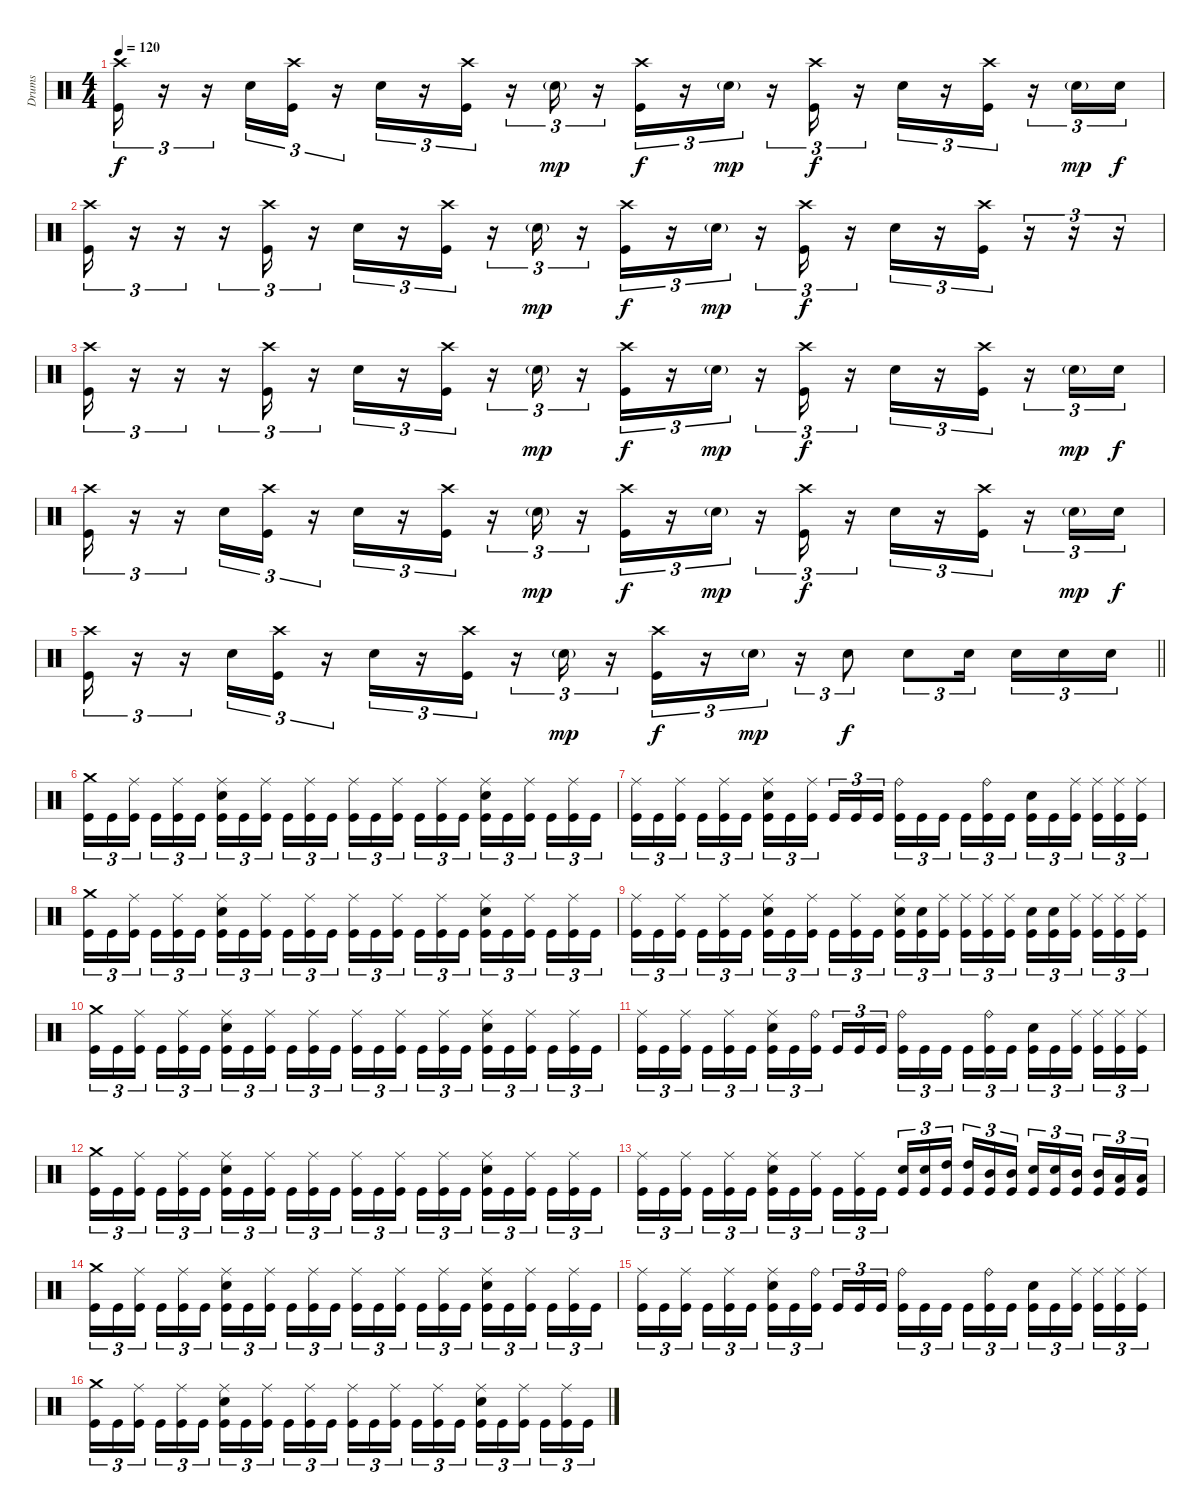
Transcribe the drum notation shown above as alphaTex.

\track ("Drums" "Drums") {instrument percussion}
\staff {score}
\articulation defaults
\ts (4 4)
\tempo 120
\clef neutral
\ks c
("Crash high (hit)" "Kick (hit)").16{tu (3 2) dy f} r.16{tu (3 2)} r.16{tu (3 2)} "Snare (hit) 2".16{tu (3 2)} ("Crash high (hit)" "Kick (hit)").16{tu (3 2)} r.16{tu (3 2)} "Snare (hit) 2".16{tu (3 2)} r.16{tu (3 2)} ("Crash high (hit)" "Kick (hit)").16{tu (3 2)} r.16{tu (3 2)} "Snare (hit) 2"{g}.16{tu (3 2) dy mp} r.16{tu (3 2)} ("Crash high (hit)" "Kick (hit)").16{tu (3 2) dy f} r.16{tu (3 2)} "Snare (hit) 2"{g}.16{tu (3 2) dy mp} r.16{tu (3 2)} ("Crash high (hit)" "Kick (hit)").16{tu (3 2) dy f} r.16{tu (3 2)} "Snare (hit) 2".16{tu (3 2)} r.16{tu (3 2)} ("Crash high (hit)" "Kick (hit)").16{tu (3 2)} r.16{tu (3 2)} "Snare (hit) 2"{g}.16{tu (3 2) dy mp} "Snare (hit) 2".16{tu (3 2) dy f} |
("Crash high (hit)" "Kick (hit)").16{tu (3 2)} r.16{tu (3 2)} r.16{tu (3 2)} r.16{tu (3 2)} ("Crash high (hit)" "Kick (hit)").16{tu (3 2)} r.16{tu (3 2)} "Snare (hit) 2".16{tu (3 2)} r.16{tu (3 2)} ("Crash high (hit)" "Kick (hit)").16{tu (3 2)} r.16{tu (3 2)} "Snare (hit) 2"{g}.16{tu (3 2) dy mp} r.16{tu (3 2)} ("Crash high (hit)" "Kick (hit)").16{tu (3 2) dy f} r.16{tu (3 2)} "Snare (hit) 2"{g}.16{tu (3 2) dy mp} r.16{tu (3 2)} ("Crash high (hit)" "Kick (hit)").16{tu (3 2) dy f} r.16{tu (3 2)} "Snare (hit) 2".16{tu (3 2)} r.16{tu (3 2)} ("Crash high (hit)" "Kick (hit)").16{tu (3 2)} r.16{tu (3 2)} r.16{tu (3 2)} r.16{tu (3 2)} |
("Crash high (hit)" "Kick (hit)").16{tu (3 2)} r.16{tu (3 2)} r.16{tu (3 2)} r.16{tu (3 2)} ("Crash high (hit)" "Kick (hit)").16{tu (3 2)} r.16{tu (3 2)} "Snare (hit) 2".16{tu (3 2)} r.16{tu (3 2)} ("Crash high (hit)" "Kick (hit)").16{tu (3 2)} r.16{tu (3 2)} "Snare (hit) 2"{g}.16{tu (3 2) dy mp} r.16{tu (3 2)} ("Crash high (hit)" "Kick (hit)").16{tu (3 2) dy f} r.16{tu (3 2)} "Snare (hit) 2"{g}.16{tu (3 2) dy mp} r.16{tu (3 2)} ("Crash high (hit)" "Kick (hit)").16{tu (3 2) dy f} r.16{tu (3 2)} "Snare (hit) 2".16{tu (3 2)} r.16{tu (3 2)} ("Crash high (hit)" "Kick (hit)").16{tu (3 2)} r.16{tu (3 2)} "Snare (hit) 2"{g}.16{tu (3 2) dy mp} "Snare (hit) 2".16{tu (3 2) dy f} |
("Crash high (hit)" "Kick (hit)").16{tu (3 2)} r.16{tu (3 2)} r.16{tu (3 2)} "Snare (hit) 2".16{tu (3 2)} ("Crash high (hit)" "Kick (hit)").16{tu (3 2)} r.16{tu (3 2)} "Snare (hit) 2".16{tu (3 2)} r.16{tu (3 2)} ("Crash high (hit)" "Kick (hit)").16{tu (3 2)} r.16{tu (3 2)} "Snare (hit) 2"{g}.16{tu (3 2) dy mp} r.16{tu (3 2)} ("Crash high (hit)" "Kick (hit)").16{tu (3 2) dy f} r.16{tu (3 2)} "Snare (hit) 2"{g}.16{tu (3 2) dy mp} r.16{tu (3 2)} ("Crash high (hit)" "Kick (hit)").16{tu (3 2) dy f} r.16{tu (3 2)} "Snare (hit) 2".16{tu (3 2)} r.16{tu (3 2)} ("Crash high (hit)" "Kick (hit)").16{tu (3 2)} r.16{tu (3 2)} "Snare (hit) 2"{g}.16{tu (3 2) dy mp} "Snare (hit) 2".16{tu (3 2) dy f} |
\barLineRight lightlight
("Crash high (hit)" "Kick (hit)").16{tu (3 2)} r.16{tu (3 2)} r.16{tu (3 2)} "Snare (hit) 2".16{tu (3 2)} ("Crash high (hit)" "Kick (hit)").16{tu (3 2)} r.16{tu (3 2)} "Snare (hit) 2".16{tu (3 2)} r.16{tu (3 2)} ("Crash high (hit)" "Kick (hit)").16{tu (3 2)} r.16{tu (3 2)} "Snare (hit) 2"{g}.16{tu (3 2) dy mp} r.16{tu (3 2)} ("Crash high (hit)" "Kick (hit)").16{tu (3 2) dy f} r.16{tu (3 2)} "Snare (hit) 2"{g}.16{tu (3 2) dy mp} r.16{tu (3 2)} "Snare (hit) 2".8{tu (3 2) dy f} "Snare (hit) 2".8{tu (3 2)} "Snare (hit) 2".16{tu (3 2) beam splitsecondary} "Snare (hit) 2".16{tu (3 2)} "Snare (hit) 2".16{tu (3 2)} "Snare (hit) 2".16{tu (3 2)} |
\section ("" "")
("Crash medium (hit)" "Kick (hit)").16{tu (3 2)} "Kick (hit)".16{tu (3 2)} ("Ride (middle)" "Kick (hit)").16{tu (3 2) beam splitsecondary} "Kick (hit)".16{tu (3 2)} ("Ride (middle)" "Kick (hit)").16{tu (3 2)} "Kick (hit)".16{tu (3 2)} ("Ride (middle)" "Snare (hit) 2" "Kick (hit)").16{tu (3 2)} "Kick (hit)".16{tu (3 2)} ("Ride (middle)" "Kick (hit)").16{tu (3 2) beam splitsecondary} "Kick (hit)".16{tu (3 2)} ("Ride (middle)" "Kick (hit)").16{tu (3 2)} "Kick (hit)".16{tu (3 2)} ("Ride (middle)" "Kick (hit)").16{tu (3 2)} "Kick (hit)".16{tu (3 2)} ("Ride (middle)" "Kick (hit)").16{tu (3 2) beam splitsecondary} "Kick (hit)".16{tu (3 2)} ("Ride (middle)" "Kick (hit)").16{tu (3 2)} "Kick (hit)".16{tu (3 2)} ("Ride (middle)" "Snare (hit) 2" "Kick (hit)").16{tu (3 2)} "Kick (hit)".16{tu (3 2)} ("Ride (middle)" "Kick (hit)").16{tu (3 2) beam splitsecondary} "Kick (hit)".16{tu (3 2)} ("Ride (middle)" "Kick (hit)").16{tu (3 2)} "Kick (hit)".16{tu (3 2)} |
("Ride (middle)" "Kick (hit)").16{tu (3 2)} "Kick (hit)".16{tu (3 2)} ("Ride (middle)" "Kick (hit)").16{tu (3 2) beam splitsecondary} "Kick (hit)".16{tu (3 2)} ("Ride (middle)" "Kick (hit)").16{tu (3 2)} "Kick (hit)".16{tu (3 2)} ("Ride (middle)" "Snare (hit) 2" "Kick (hit)").16{tu (3 2)} "Kick (hit)".16{tu (3 2)} ("Ride (middle)" "Kick (hit)").16{tu (3 2) beam splitsecondary} "Kick (hit)".16{tu (3 2)} "Kick (hit)".16{tu (3 2)} "Kick (hit)".16{tu (3 2)} ("Ride (bell)" "Kick (hit)").16{tu (3 2)} "Kick (hit)".16{tu (3 2)} "Kick (hit)".16{tu (3 2) beam splitsecondary} "Kick (hit)".16{tu (3 2)} ("Ride (bell)" "Kick (hit)").16{tu (3 2)} "Kick (hit)".16{tu (3 2)} ("Snare (hit) 2" "Kick (hit)").16{tu (3 2)} "Kick (hit)".16{tu (3 2)} ("Ride (middle)" "Kick (hit)").16{tu (3 2) beam splitsecondary} ("Ride (middle)" "Kick (hit)").16{tu (3 2)} ("Ride (middle)" "Kick (hit)").16{tu (3 2)} ("Ride (middle)" "Kick (hit)").16{tu (3 2)} |
("Crash medium (hit)" "Kick (hit)").16{tu (3 2)} "Kick (hit)".16{tu (3 2)} ("Ride (middle)" "Kick (hit)").16{tu (3 2) beam splitsecondary} "Kick (hit)".16{tu (3 2)} ("Ride (middle)" "Kick (hit)").16{tu (3 2)} "Kick (hit)".16{tu (3 2)} ("Ride (middle)" "Snare (hit) 2" "Kick (hit)").16{tu (3 2)} "Kick (hit)".16{tu (3 2)} ("Ride (middle)" "Kick (hit)").16{tu (3 2) beam splitsecondary} "Kick (hit)".16{tu (3 2)} ("Ride (middle)" "Kick (hit)").16{tu (3 2)} "Kick (hit)".16{tu (3 2)} ("Ride (middle)" "Kick (hit)").16{tu (3 2)} "Kick (hit)".16{tu (3 2)} ("Ride (middle)" "Kick (hit)").16{tu (3 2) beam splitsecondary} "Kick (hit)".16{tu (3 2)} ("Ride (middle)" "Kick (hit)").16{tu (3 2)} "Kick (hit)".16{tu (3 2)} ("Ride (middle)" "Snare (hit) 2" "Kick (hit)").16{tu (3 2)} "Kick (hit)".16{tu (3 2)} ("Ride (middle)" "Kick (hit)").16{tu (3 2) beam splitsecondary} "Kick (hit)".16{tu (3 2)} ("Ride (middle)" "Kick (hit)").16{tu (3 2)} "Kick (hit)".16{tu (3 2)} |
("Ride (middle)" "Kick (hit)").16{tu (3 2)} "Kick (hit)".16{tu (3 2)} ("Ride (middle)" "Kick (hit)").16{tu (3 2) beam splitsecondary} "Kick (hit)".16{tu (3 2)} ("Ride (middle)" "Kick (hit)").16{tu (3 2)} "Kick (hit)".16{tu (3 2)} ("Ride (middle)" "Snare (hit) 2" "Kick (hit)").16{tu (3 2)} "Kick (hit)".16{tu (3 2)} ("Ride (middle)" "Kick (hit)").16{tu (3 2) beam splitsecondary} "Kick (hit)".16{tu (3 2)} ("Ride (middle)" "Kick (hit)").16{tu (3 2)} "Kick (hit)".16{tu (3 2)} ("Ride (middle)" "Snare (hit) 2" "Kick (hit)").16{tu (3 2)} ("Snare (hit) 2" "Kick (hit)").16{tu (3 2)} ("Ride (middle)" "Kick (hit)").16{tu (3 2) beam splitsecondary} ("Ride (middle)" "Kick (hit)").16{tu (3 2)} ("Ride (middle)" "Kick (hit)").16{tu (3 2)} ("Ride (middle)" "Kick (hit)").16{tu (3 2)} ("Snare (hit) 2" "Kick (hit)").16{tu (3 2)} ("Snare (hit) 2" "Kick (hit)").16{tu (3 2)} ("Ride (middle)" "Kick (hit)").16{tu (3 2) beam splitsecondary} ("Ride (middle)" "Kick (hit)").16{tu (3 2)} ("Ride (middle)" "Kick (hit)").16{tu (3 2)} ("Ride (middle)" "Kick (hit)").16{tu (3 2)} |
("Crash medium (hit)" "Kick (hit)").16{tu (3 2)} "Kick (hit)".16{tu (3 2)} ("Ride (middle)" "Kick (hit)").16{tu (3 2) beam splitsecondary} "Kick (hit)".16{tu (3 2)} ("Ride (middle)" "Kick (hit)").16{tu (3 2)} "Kick (hit)".16{tu (3 2)} ("Ride (middle)" "Snare (hit) 2" "Kick (hit)").16{tu (3 2)} "Kick (hit)".16{tu (3 2)} ("Ride (middle)" "Kick (hit)").16{tu (3 2) beam splitsecondary} "Kick (hit)".16{tu (3 2)} ("Ride (middle)" "Kick (hit)").16{tu (3 2)} "Kick (hit)".16{tu (3 2)} ("Ride (middle)" "Kick (hit)").16{tu (3 2)} "Kick (hit)".16{tu (3 2)} ("Ride (middle)" "Kick (hit)").16{tu (3 2) beam splitsecondary} "Kick (hit)".16{tu (3 2)} ("Ride (middle)" "Kick (hit)").16{tu (3 2)} "Kick (hit)".16{tu (3 2)} ("Ride (middle)" "Snare (hit) 2" "Kick (hit)").16{tu (3 2)} "Kick (hit)".16{tu (3 2)} ("Ride (middle)" "Kick (hit)").16{tu (3 2) beam splitsecondary} "Kick (hit)".16{tu (3 2)} ("Ride (middle)" "Kick (hit)").16{tu (3 2)} "Kick (hit)".16{tu (3 2)} |
("Ride (middle)" "Kick (hit)").16{tu (3 2)} "Kick (hit)".16{tu (3 2)} ("Ride (middle)" "Kick (hit)").16{tu (3 2) beam splitsecondary} "Kick (hit)".16{tu (3 2)} ("Ride (middle)" "Kick (hit)").16{tu (3 2)} "Kick (hit)".16{tu (3 2)} ("Ride (middle)" "Snare (hit) 2" "Kick (hit)").16{tu (3 2)} "Kick (hit)".16{tu (3 2)} ("Ride (bell)" "Kick (hit)").16{tu (3 2) beam splitsecondary} "Kick (hit)".16{tu (3 2)} "Kick (hit)".16{tu (3 2)} "Kick (hit)".16{tu (3 2)} ("Ride (bell)" "Kick (hit)").16{tu (3 2)} "Kick (hit)".16{tu (3 2)} "Kick (hit)".16{tu (3 2) beam splitsecondary} "Kick (hit)".16{tu (3 2)} ("Ride (bell)" "Kick (hit)").16{tu (3 2)} "Kick (hit)".16{tu (3 2)} ("Snare (hit) 2" "Kick (hit)").16{tu (3 2)} "Kick (hit)".16{tu (3 2)} ("Ride (middle)" "Kick (hit)").16{tu (3 2) beam splitsecondary} ("Ride (middle)" "Kick (hit)").16{tu (3 2)} ("Ride (middle)" "Kick (hit)").16{tu (3 2)} ("Ride (middle)" "Kick (hit)").16{tu (3 2)} |
("Crash medium (hit)" "Kick (hit)").16{tu (3 2)} "Kick (hit)".16{tu (3 2)} ("Ride (middle)" "Kick (hit)").16{tu (3 2) beam splitsecondary} "Kick (hit)".16{tu (3 2)} ("Ride (middle)" "Kick (hit)").16{tu (3 2)} "Kick (hit)".16{tu (3 2)} ("Ride (middle)" "Snare (hit) 2" "Kick (hit)").16{tu (3 2)} "Kick (hit)".16{tu (3 2)} ("Ride (middle)" "Kick (hit)").16{tu (3 2) beam splitsecondary} "Kick (hit)".16{tu (3 2)} ("Ride (middle)" "Kick (hit)").16{tu (3 2)} "Kick (hit)".16{tu (3 2)} ("Ride (middle)" "Kick (hit)").16{tu (3 2)} "Kick (hit)".16{tu (3 2)} ("Ride (middle)" "Kick (hit)").16{tu (3 2) beam splitsecondary} "Kick (hit)".16{tu (3 2)} ("Ride (middle)" "Kick (hit)").16{tu (3 2)} "Kick (hit)".16{tu (3 2)} ("Ride (middle)" "Snare (hit) 2" "Kick (hit)").16{tu (3 2)} "Kick (hit)".16{tu (3 2)} ("Ride (middle)" "Kick (hit)").16{tu (3 2) beam splitsecondary} "Kick (hit)".16{tu (3 2)} ("Ride (middle)" "Kick (hit)").16{tu (3 2)} "Kick (hit)".16{tu (3 2)} |
("Ride (middle)" "Kick (hit)").16{tu (3 2)} "Kick (hit)".16{tu (3 2)} ("Ride (middle)" "Kick (hit)").16{tu (3 2) beam splitsecondary} "Kick (hit)".16{tu (3 2)} ("Ride (middle)" "Kick (hit)").16{tu (3 2)} "Kick (hit)".16{tu (3 2)} ("Ride (middle)" "Snare (hit) 2" "Kick (hit)").16{tu (3 2)} "Kick (hit)".16{tu (3 2)} ("Ride (middle)" "Kick (hit)").16{tu (3 2) beam splitsecondary} "Kick (hit)".16{tu (3 2)} ("Ride (middle)" "Kick (hit)").16{tu (3 2)} "Kick (hit)".16{tu (3 2)} ("Snare (hit) 2" "Kick (hit)").16{tu (3 2)} ("Snare (hit) 2" "Kick (hit)").16{tu (3 2)} ("High Tom (hit)" "Kick (hit)").16{tu (3 2) beam splitsecondary} ("High Tom (hit)" "Kick (hit)").16{tu (3 2)} ("Mid Tom (hit)" "Kick (hit)").16{tu (3 2)} ("Mid Tom (hit)" "Kick (hit)").16{tu (3 2)} ("Snare (hit) 2" "Kick (hit)").16{tu (3 2)} ("Snare (hit) 2" "Kick (hit)").16{tu (3 2)} ("Mid Tom (hit)" "Kick (hit)").16{tu (3 2) beam splitsecondary} ("Mid Tom (hit)" "Kick (hit)").16{tu (3 2)} ("Low Tom (hit)" "Kick (hit)").16{tu (3 2)} ("Low Tom (hit)" "Kick (hit)").16{tu (3 2)} |
("Crash medium (hit)" "Kick (hit)").16{tu (3 2)} "Kick (hit)".16{tu (3 2)} ("Ride (middle)" "Kick (hit)").16{tu (3 2) beam splitsecondary} "Kick (hit)".16{tu (3 2)} ("Ride (middle)" "Kick (hit)").16{tu (3 2)} "Kick (hit)".16{tu (3 2)} ("Ride (middle)" "Snare (hit) 2" "Kick (hit)").16{tu (3 2)} "Kick (hit)".16{tu (3 2)} ("Ride (middle)" "Kick (hit)").16{tu (3 2) beam splitsecondary} "Kick (hit)".16{tu (3 2)} ("Ride (middle)" "Kick (hit)").16{tu (3 2)} "Kick (hit)".16{tu (3 2)} ("Ride (middle)" "Kick (hit)").16{tu (3 2)} "Kick (hit)".16{tu (3 2)} ("Ride (middle)" "Kick (hit)").16{tu (3 2) beam splitsecondary} "Kick (hit)".16{tu (3 2)} ("Ride (middle)" "Kick (hit)").16{tu (3 2)} "Kick (hit)".16{tu (3 2)} ("Ride (middle)" "Snare (hit) 2" "Kick (hit)").16{tu (3 2)} "Kick (hit)".16{tu (3 2)} ("Ride (middle)" "Kick (hit)").16{tu (3 2) beam splitsecondary} "Kick (hit)".16{tu (3 2)} ("Ride (middle)" "Kick (hit)").16{tu (3 2)} "Kick (hit)".16{tu (3 2)} |
("Ride (middle)" "Kick (hit)").16{tu (3 2)} "Kick (hit)".16{tu (3 2)} ("Ride (middle)" "Kick (hit)").16{tu (3 2) beam splitsecondary} "Kick (hit)".16{tu (3 2)} ("Ride (middle)" "Kick (hit)").16{tu (3 2)} "Kick (hit)".16{tu (3 2)} ("Ride (middle)" "Snare (hit) 2" "Kick (hit)").16{tu (3 2)} "Kick (hit)".16{tu (3 2)} ("Ride (bell)" "Kick (hit)").16{tu (3 2) beam splitsecondary} "Kick (hit)".16{tu (3 2)} "Kick (hit)".16{tu (3 2)} "Kick (hit)".16{tu (3 2)} ("Ride (bell)" "Kick (hit)").16{tu (3 2)} "Kick (hit)".16{tu (3 2)} "Kick (hit)".16{tu (3 2) beam splitsecondary} "Kick (hit)".16{tu (3 2)} ("Ride (bell)" "Kick (hit)").16{tu (3 2)} "Kick (hit)".16{tu (3 2)} ("Snare (hit) 2" "Kick (hit)").16{tu (3 2)} "Kick (hit)".16{tu (3 2)} ("Ride (middle)" "Kick (hit)").16{tu (3 2) beam splitsecondary} ("Ride (middle)" "Kick (hit)").16{tu (3 2)} ("Ride (middle)" "Kick (hit)").16{tu (3 2)} ("Ride (middle)" "Kick (hit)").16{tu (3 2)} |
("Crash medium (hit)" "Kick (hit)").16{tu (3 2)} "Kick (hit)".16{tu (3 2)} ("Ride (middle)" "Kick (hit)").16{tu (3 2) beam splitsecondary} "Kick (hit)".16{tu (3 2)} ("Ride (middle)" "Kick (hit)").16{tu (3 2)} "Kick (hit)".16{tu (3 2)} ("Ride (middle)" "Snare (hit) 2" "Kick (hit)").16{tu (3 2)} "Kick (hit)".16{tu (3 2)} ("Ride (middle)" "Kick (hit)").16{tu (3 2) beam splitsecondary} "Kick (hit)".16{tu (3 2)} ("Ride (middle)" "Kick (hit)").16{tu (3 2)} "Kick (hit)".16{tu (3 2)} ("Ride (middle)" "Kick (hit)").16{tu (3 2)} "Kick (hit)".16{tu (3 2)} ("Ride (middle)" "Kick (hit)").16{tu (3 2) beam splitsecondary} "Kick (hit)".16{tu (3 2)} ("Ride (middle)" "Kick (hit)").16{tu (3 2)} "Kick (hit)".16{tu (3 2)} ("Ride (middle)" "Snare (hit) 2" "Kick (hit)").16{tu (3 2)} "Kick (hit)".16{tu (3 2)} ("Ride (middle)" "Kick (hit)").16{tu (3 2) beam splitsecondary} "Kick (hit)".16{tu (3 2)} ("Ride (middle)" "Kick (hit)").16{tu (3 2)} "Kick (hit)".16{tu (3 2)}
